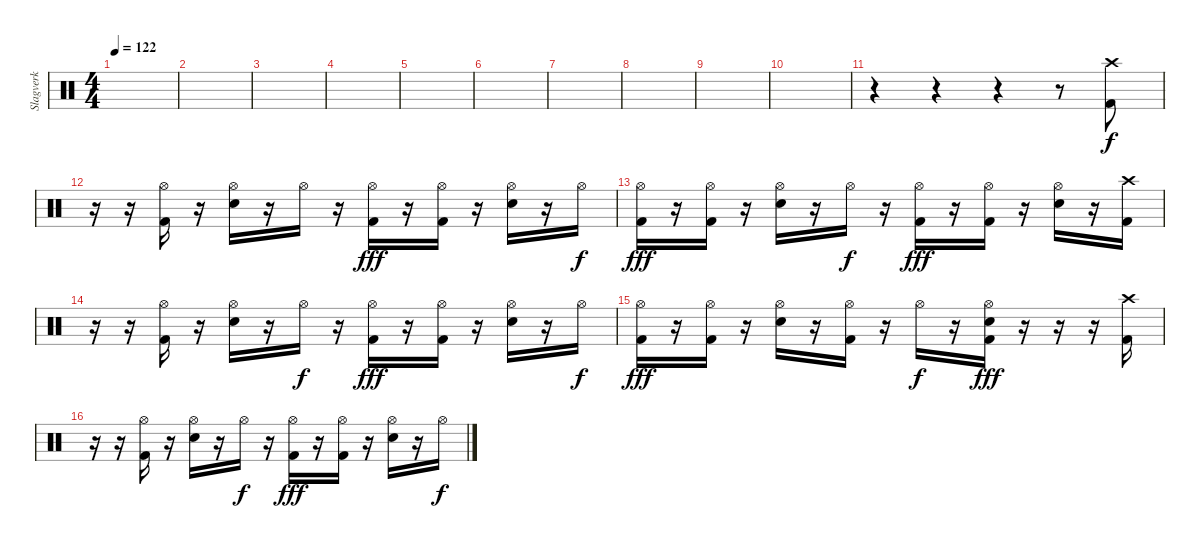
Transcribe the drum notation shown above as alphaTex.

\track ("Slagverk" "Slagverk") {instrument percussion}
\staff {score}
\articulation defaults
\ts (4 4)
\tempo 122
\clef neutral
\ks c
|
|
|
|
|
|
|
|
|
|
r.4 r.4 r.4 r.8 ("Crash high (hit)" "Kick (hit) 2").8 |
r.16 r.16 ("Hi-Hat (open)" "Kick (hit) 2").16 r.16 ("Hi-Hat (open)" "Electric Snare (hit)").16 r.16 "Hi-Hat (open)".16{dy f} r.16 ("Hi-Hat (open)" "Kick (hit) 2").16{dy fff} r.16 ("Hi-Hat (open)" "Kick (hit) 2").16 r.16 ("Hi-Hat (open)" "Electric Snare (hit)").16 r.16 "Hi-Hat (open)".16{dy f} |
("Hi-Hat (open)" "Kick (hit) 2").16{dy fff} r.16 ("Hi-Hat (open)" "Kick (hit) 2").16 r.16 ("Hi-Hat (open)" "Electric Snare (hit)").16 r.16 "Hi-Hat (open)".16{dy f} r.16 ("Hi-Hat (open)" "Kick (hit) 2").16{dy fff} r.16 ("Hi-Hat (open)" "Kick (hit) 2").16 r.16 ("Hi-Hat (open)" "Electric Snare (hit)").16 r.16 ("Crash high (hit)" "Kick (hit) 2").16 |
r.16 r.16 ("Hi-Hat (open)" "Kick (hit) 2").16 r.16 ("Hi-Hat (open)" "Electric Snare (hit)").16 r.16 "Hi-Hat (open)".16{dy f} r.16 ("Hi-Hat (open)" "Kick (hit) 2").16{dy fff} r.16 ("Hi-Hat (open)" "Kick (hit) 2").16 r.16 ("Hi-Hat (open)" "Electric Snare (hit)").16 r.16 "Hi-Hat (open)".16{dy f} |
("Hi-Hat (open)" "Kick (hit) 2").16{dy fff} r.16 ("Hi-Hat (open)" "Kick (hit) 2").16 r.16 ("Hi-Hat (open)" "Electric Snare (hit)").16 r.16 ("Hi-Hat (open)" "Kick (hit) 2").16 r.16 "Hi-Hat (open)".16{dy f} r.16 ("Hi-Hat (open)" "Electric Snare (hit)" "Kick (hit) 2").16{dy fff} r.16 r.16 r.16 ("Crash high (hit)" "Kick (hit) 2").16 |
r.16 r.16 ("Hi-Hat (open)" "Kick (hit) 2").16 r.16 ("Hi-Hat (open)" "Electric Snare (hit)").16 r.16 "Hi-Hat (open)".16{dy f} r.16 ("Hi-Hat (open)" "Kick (hit) 2").16{dy fff} r.16 ("Hi-Hat (open)" "Kick (hit) 2").16 r.16 ("Hi-Hat (open)" "Electric Snare (hit)").16 r.16 "Hi-Hat (open)".16{dy f}
